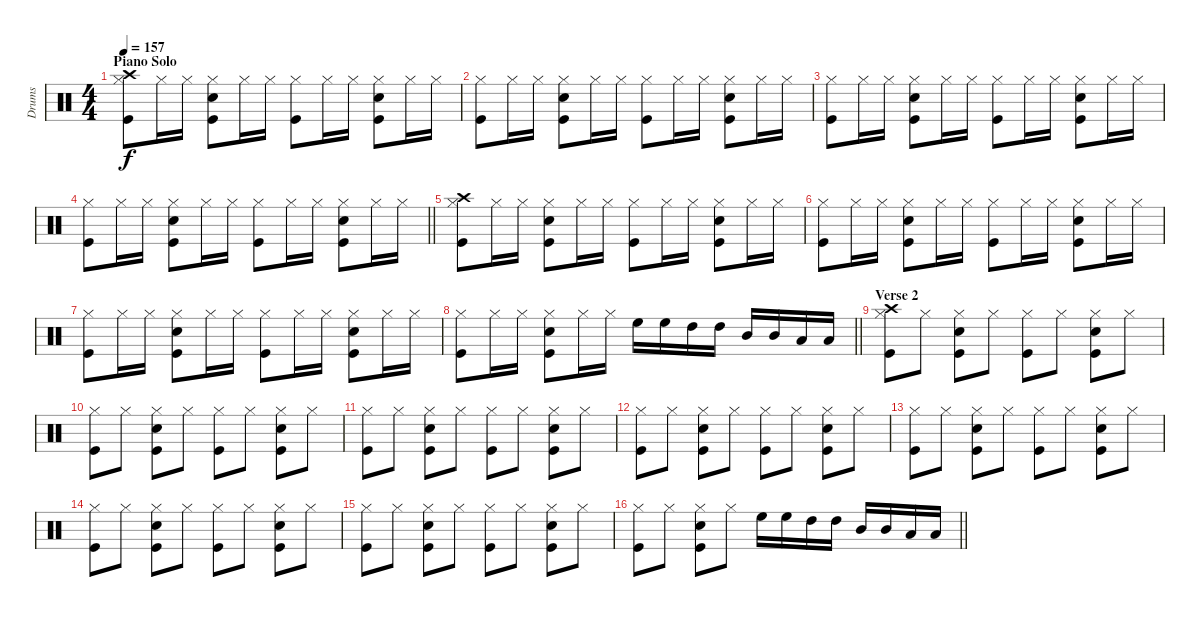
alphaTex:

\track ("Drums" "Drums") {instrument percussion}
\staff {score}
\articulation defaults
\ts (4 4)
\section ("" "Piano Solo")
\tempo 157
\clef neutral
\ks c
("Hi-Hat (closed)" "Kick (hit)" "Crash high (hit)").8{dy f} "Hi-Hat (closed)".16 "Hi-Hat (closed)".16 ("Hi-Hat (closed)" "Kick (hit)" "Snare (hit) 2").8 "Hi-Hat (closed)".16 "Hi-Hat (closed)".16 ("Hi-Hat (closed)" "Kick (hit)").8 "Hi-Hat (closed)".16 "Hi-Hat (closed)".16 ("Hi-Hat (closed)" "Kick (hit)" "Snare (hit) 2").8 "Hi-Hat (closed)".16 "Hi-Hat (closed)".16 |
("Hi-Hat (closed)" "Kick (hit)").8 "Hi-Hat (closed)".16 "Hi-Hat (closed)".16 ("Hi-Hat (closed)" "Kick (hit)" "Snare (hit) 2").8 "Hi-Hat (closed)".16 "Hi-Hat (closed)".16 ("Hi-Hat (closed)" "Kick (hit)").8 "Hi-Hat (closed)".16 "Hi-Hat (closed)".16 ("Hi-Hat (closed)" "Kick (hit)" "Snare (hit) 2").8 "Hi-Hat (closed)".16 "Hi-Hat (closed)".16 |
("Hi-Hat (closed)" "Kick (hit)").8 "Hi-Hat (closed)".16 "Hi-Hat (closed)".16 ("Hi-Hat (closed)" "Kick (hit)" "Snare (hit) 2").8 "Hi-Hat (closed)".16 "Hi-Hat (closed)".16 ("Hi-Hat (closed)" "Kick (hit)").8 "Hi-Hat (closed)".16 "Hi-Hat (closed)".16 ("Hi-Hat (closed)" "Kick (hit)" "Snare (hit) 2").8 "Hi-Hat (closed)".16 "Hi-Hat (closed)".16 |
\barLineRight lightlight
("Hi-Hat (closed)" "Kick (hit)").8 "Hi-Hat (closed)".16 "Hi-Hat (closed)".16 ("Hi-Hat (closed)" "Kick (hit)" "Snare (hit) 2").8 "Hi-Hat (closed)".16 "Hi-Hat (closed)".16 ("Hi-Hat (closed)" "Kick (hit)").8 "Hi-Hat (closed)".16 "Hi-Hat (closed)".16 ("Hi-Hat (closed)" "Kick (hit)" "Snare (hit) 2").8 "Hi-Hat (closed)".16 "Hi-Hat (closed)".16 |
("Hi-Hat (closed)" "Kick (hit)" "Crash high (hit)").8 "Hi-Hat (closed)".16 "Hi-Hat (closed)".16 ("Hi-Hat (closed)" "Kick (hit)" "Snare (hit) 2").8 "Hi-Hat (closed)".16 "Hi-Hat (closed)".16 ("Hi-Hat (closed)" "Kick (hit)").8 "Hi-Hat (closed)".16 "Hi-Hat (closed)".16 ("Hi-Hat (closed)" "Kick (hit)" "Snare (hit) 2").8 "Hi-Hat (closed)".16 "Hi-Hat (closed)".16 |
("Hi-Hat (closed)" "Kick (hit)").8 "Hi-Hat (closed)".16 "Hi-Hat (closed)".16 ("Hi-Hat (closed)" "Kick (hit)" "Snare (hit) 2").8 "Hi-Hat (closed)".16 "Hi-Hat (closed)".16 ("Hi-Hat (closed)" "Kick (hit)").8 "Hi-Hat (closed)".16 "Hi-Hat (closed)".16 ("Hi-Hat (closed)" "Kick (hit)" "Snare (hit) 2").8 "Hi-Hat (closed)".16 "Hi-Hat (closed)".16 |
("Hi-Hat (closed)" "Kick (hit)").8 "Hi-Hat (closed)".16 "Hi-Hat (closed)".16 ("Hi-Hat (closed)" "Kick (hit)" "Snare (hit) 2").8 "Hi-Hat (closed)".16 "Hi-Hat (closed)".16 ("Hi-Hat (closed)" "Kick (hit)").8 "Hi-Hat (closed)".16 "Hi-Hat (closed)".16 ("Hi-Hat (closed)" "Kick (hit)" "Snare (hit) 2").8 "Hi-Hat (closed)".16 "Hi-Hat (closed)".16 |
\barLineRight lightlight
("Hi-Hat (closed)" "Kick (hit)").8 "Hi-Hat (closed)".16 "Hi-Hat (closed)".16 ("Hi-Hat (closed)" "Kick (hit)" "Snare (hit) 2").8 "Hi-Hat (closed)".16 "Hi-Hat (closed)".16 "High Floor Tom (hit)".16 "High Floor Tom (hit)".16 "High Tom (hit)".16 "High Tom (hit)".16 "Mid Tom (hit)".16 "Mid Tom (hit)".16 "Low Tom (hit)".16 "Low Tom (hit)".16 |
\section ("" "Verse 2")
("Hi-Hat (closed)" "Kick (hit)" "Crash high (hit)").8 "Hi-Hat (closed)".8 ("Hi-Hat (closed)" "Kick (hit)" "Snare (hit) 2").8 "Hi-Hat (closed)".8 ("Hi-Hat (closed)" "Kick (hit)").8 "Hi-Hat (closed)".8 ("Hi-Hat (closed)" "Kick (hit)" "Snare (hit) 2").8 "Hi-Hat (closed)".8 |
("Hi-Hat (closed)" "Kick (hit)").8 "Hi-Hat (closed)".8 ("Hi-Hat (closed)" "Kick (hit)" "Snare (hit) 2").8 "Hi-Hat (closed)".8 ("Hi-Hat (closed)" "Kick (hit)").8 "Hi-Hat (closed)".8 ("Hi-Hat (closed)" "Kick (hit)" "Snare (hit) 2").8 "Hi-Hat (closed)".8 |
("Hi-Hat (closed)" "Kick (hit)").8 "Hi-Hat (closed)".8 ("Hi-Hat (closed)" "Kick (hit)" "Snare (hit) 2").8 "Hi-Hat (closed)".8 ("Hi-Hat (closed)" "Kick (hit)").8 "Hi-Hat (closed)".8 ("Hi-Hat (closed)" "Kick (hit)" "Snare (hit) 2").8 "Hi-Hat (closed)".8 |
("Hi-Hat (closed)" "Kick (hit)").8 "Hi-Hat (closed)".8 ("Hi-Hat (closed)" "Kick (hit)" "Snare (hit) 2").8 "Hi-Hat (closed)".8 ("Hi-Hat (closed)" "Kick (hit)").8 "Hi-Hat (closed)".8 ("Hi-Hat (closed)" "Kick (hit)" "Snare (hit) 2").8 "Hi-Hat (closed)".8 |
("Hi-Hat (closed)" "Kick (hit)").8 "Hi-Hat (closed)".8 ("Hi-Hat (closed)" "Kick (hit)" "Snare (hit) 2").8 "Hi-Hat (closed)".8 ("Hi-Hat (closed)" "Kick (hit)").8 "Hi-Hat (closed)".8 ("Hi-Hat (closed)" "Kick (hit)" "Snare (hit) 2").8 "Hi-Hat (closed)".8 |
("Hi-Hat (closed)" "Kick (hit)").8 "Hi-Hat (closed)".8 ("Hi-Hat (closed)" "Kick (hit)" "Snare (hit) 2").8 "Hi-Hat (closed)".8 ("Hi-Hat (closed)" "Kick (hit)").8 "Hi-Hat (closed)".8 ("Hi-Hat (closed)" "Kick (hit)" "Snare (hit) 2").8 "Hi-Hat (closed)".8 |
("Hi-Hat (closed)" "Kick (hit)").8 "Hi-Hat (closed)".8 ("Hi-Hat (closed)" "Kick (hit)" "Snare (hit) 2").8 "Hi-Hat (closed)".8 ("Hi-Hat (closed)" "Kick (hit)").8 "Hi-Hat (closed)".8 ("Hi-Hat (closed)" "Kick (hit)" "Snare (hit) 2").8 "Hi-Hat (closed)".8 |
\barLineRight lightlight
("Hi-Hat (closed)" "Kick (hit)").8 "Hi-Hat (closed)".8 ("Hi-Hat (closed)" "Kick (hit)" "Snare (hit) 2").8 "Hi-Hat (closed)".8 "High Floor Tom (hit)".16 "High Floor Tom (hit)".16 "High Tom (hit)".16 "High Tom (hit)".16 "Mid Tom (hit)".16 "Mid Tom (hit)".16 "Low Tom (hit)".16 "Low Tom (hit)".16
